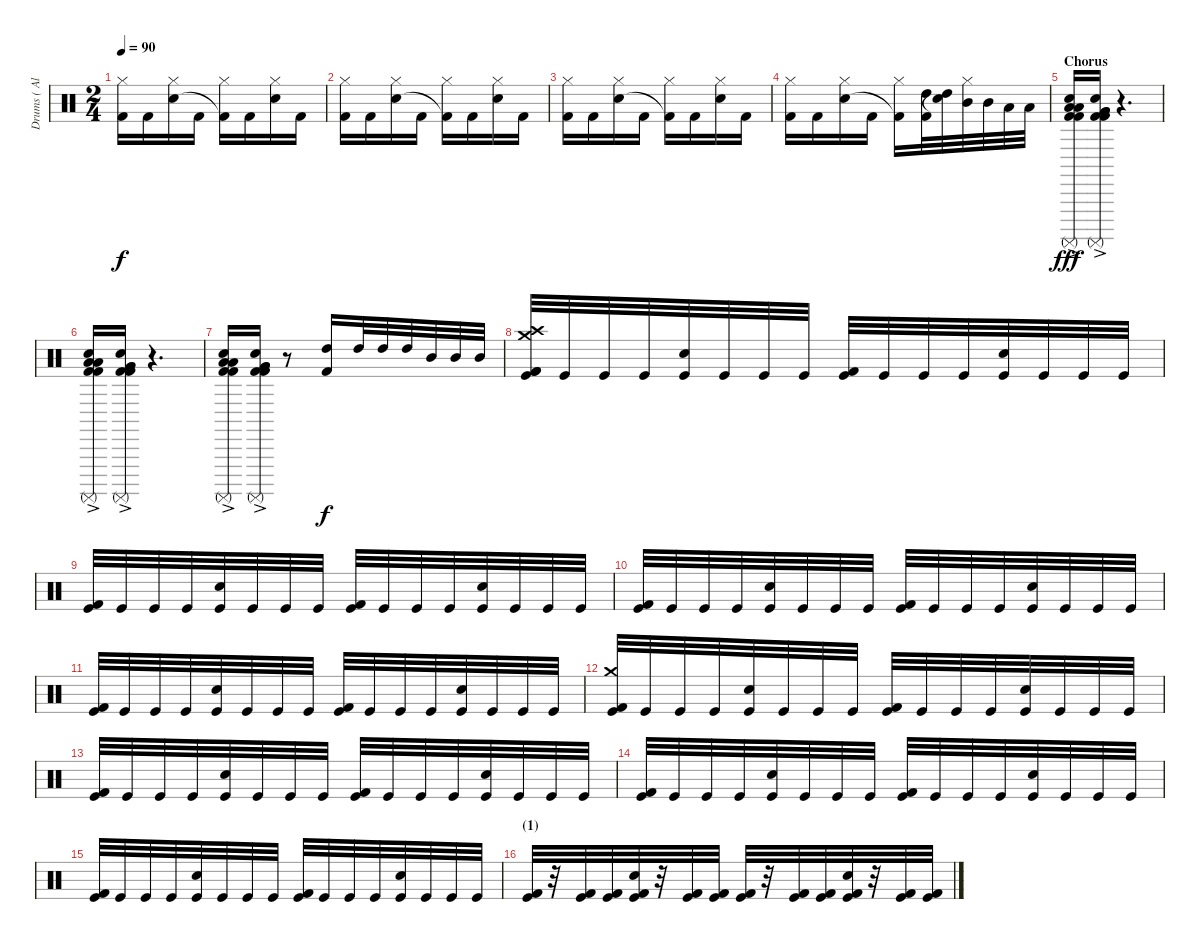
\track ("Drums ( Alex Holzwarth)" "Drums ( Al") {instrument percussion}
\staff {score}
\articulation defaults
\ts (2 4)
\tempo 90
\clef neutral
\ks c
("Hi-Hat (closed)" "Kick (hit) 2").16{dy f} "Kick (hit) 2".16 ("Hi-Hat (closed)" "Electric Snare (hit)").16 "Kick (hit) 2".16 ("Hi-Hat (closed)" "Kick (hit) 2"{t}).16 "Kick (hit) 2".16 ("Hi-Hat (closed)" "Electric Snare (hit)").16 "Kick (hit) 2".16 |
("Hi-Hat (closed)" "Kick (hit) 2").16 "Kick (hit) 2".16 ("Hi-Hat (closed)" "Electric Snare (hit)").16 "Kick (hit) 2".16 ("Hi-Hat (closed)" "Kick (hit) 2"{t}).16 "Kick (hit) 2".16 ("Hi-Hat (closed)" "Electric Snare (hit)").16 "Kick (hit) 2".16 |
("Hi-Hat (closed)" "Kick (hit) 2").16 "Kick (hit) 2".16 ("Hi-Hat (closed)" "Electric Snare (hit)").16 "Kick (hit) 2".16 ("Hi-Hat (closed)" "Kick (hit) 2"{t}).16 "Kick (hit) 2".16 ("Hi-Hat (closed)" "Electric Snare (hit)").16 "Kick (hit) 2".16 |
("Hi-Hat (closed)" "Kick (hit) 2").16 "Kick (hit) 2".16 ("Hi-Hat (closed)" "Electric Snare (hit)").16 "Kick (hit) 2".16 ("Hi-Hat (closed)" "Kick (hit) 2"{t}).16 ("High Tom (hit)" "Kick (hit) 2").32 ("High Tom (hit)" "Snare (hit)"{t}).32 ("Hi-Hat (closed)" "Mid Tom (hit)").32 "Mid Tom (hit)".32 "Low Tom (hit)".32 "Low Tom (hit)".32 |
\section ("" "Chorus")
("Surdo (mute)"{ac} "Low Tom (hit)"{ac} "Low Tom (hit)"{ac} "Snare (hit) 2" "Kick (hit) 2"{ac} "Kick (hit) 2"{ac}).16{dy fff} ("Surdo (mute)"{ac} "Very Low Tom (hit)"{ac} "Very Low Tom (hit)"{ac} "Snare (hit) 2" "Kick (hit) 2"{ac} "Kick (hit) 2"{ac}).16 r.4{d} |
("Surdo (mute)"{ac} "Low Tom (hit)"{ac} "Low Tom (hit)"{ac} "Snare (hit) 2" "Kick (hit) 2"{ac} "Kick (hit) 2"{ac}).16 ("Surdo (mute)"{ac} "Very Low Tom (hit)"{ac} "Very Low Tom (hit)"{ac} "Snare (hit) 2" "Kick (hit) 2"{ac} "Kick (hit) 2"{ac}).16 r.4{d} |
("Surdo (mute)"{ac} "Low Tom (hit)"{ac} "Low Tom (hit)"{ac} "Snare (hit) 2" "Kick (hit) 2"{ac} "Kick (hit) 2"{ac}).16 ("Surdo (mute)"{ac} "Very Low Tom (hit)"{ac} "Very Low Tom (hit)"{ac} "Snare (hit) 2" "Kick (hit) 2"{ac} "Kick (hit) 2"{ac}).16 r.8 ("High Tom (hit)" "Kick (hit) 2").16{dy f} "High Tom (hit)".32 "High Tom (hit)".32 "High Tom (hit)".32 "Mid Tom (hit)".32 "Mid Tom (hit)".32 "Mid Tom (hit)".32 |
("Crash high (hit)" "Crash medium (hit)" "Kick (hit) 2" "Kick (hit) 2" "Kick (hit)").32 "Kick (hit)".32 "Kick (hit)".32 "Kick (hit)".32 ("Snare (hit) 2" "Kick (hit)").32 "Kick (hit)".32 "Kick (hit)".32 "Kick (hit)".32 ("Kick (hit) 2" "Kick (hit)").32 "Kick (hit)".32 "Kick (hit)".32 "Kick (hit)".32 ("Snare (hit) 2" "Kick (hit)").32 "Kick (hit)".32 "Kick (hit)".32 "Kick (hit)".32 |
("Kick (hit) 2" "Kick (hit)").32 "Kick (hit)".32 "Kick (hit)".32 "Kick (hit)".32 ("Snare (hit) 2" "Kick (hit)").32 "Kick (hit)".32 "Kick (hit)".32 "Kick (hit)".32 ("Kick (hit) 2" "Kick (hit)").32 "Kick (hit)".32 "Kick (hit)".32 "Kick (hit)".32 ("Snare (hit) 2" "Kick (hit)").32 "Kick (hit)".32 "Kick (hit)".32 "Kick (hit)".32 |
("Kick (hit) 2" "Kick (hit)").32 "Kick (hit)".32 "Kick (hit)".32 "Kick (hit)".32 ("Snare (hit) 2" "Kick (hit)").32 "Kick (hit)".32 "Kick (hit)".32 "Kick (hit)".32 ("Kick (hit) 2" "Kick (hit)").32 "Kick (hit)".32 "Kick (hit)".32 "Kick (hit)".32 ("Snare (hit) 2" "Kick (hit)").32 "Kick (hit)".32 "Kick (hit)".32 "Kick (hit)".32 |
("Kick (hit) 2" "Kick (hit)").32 "Kick (hit)".32 "Kick (hit)".32 "Kick (hit)".32 ("Snare (hit) 2" "Kick (hit)").32 "Kick (hit)".32 "Kick (hit)".32 "Kick (hit)".32 ("Kick (hit) 2" "Kick (hit)").32 "Kick (hit)".32 "Kick (hit)".32 "Kick (hit)".32 ("Snare (hit) 2" "Kick (hit)").32 "Kick (hit)".32 "Kick (hit)".32 "Kick (hit)".32 |
("Crash medium (hit)" "Kick (hit) 2" "Kick (hit)").32 "Kick (hit)".32 "Kick (hit)".32 "Kick (hit)".32 ("Snare (hit) 2" "Kick (hit)").32 "Kick (hit)".32 "Kick (hit)".32 "Kick (hit)".32 ("Kick (hit) 2" "Kick (hit)").32 "Kick (hit)".32 "Kick (hit)".32 "Kick (hit)".32 ("Snare (hit) 2" "Kick (hit)").32 "Kick (hit)".32 "Kick (hit)".32 "Kick (hit)".32 |
("Kick (hit) 2" "Kick (hit)").32 "Kick (hit)".32 "Kick (hit)".32 "Kick (hit)".32 ("Snare (hit) 2" "Kick (hit)").32 "Kick (hit)".32 "Kick (hit)".32 "Kick (hit)".32 ("Kick (hit) 2" "Kick (hit)").32 "Kick (hit)".32 "Kick (hit)".32 "Kick (hit)".32 ("Snare (hit) 2" "Kick (hit)").32 "Kick (hit)".32 "Kick (hit)".32 "Kick (hit)".32 |
("Kick (hit) 2" "Kick (hit)").32 "Kick (hit)".32 "Kick (hit)".32 "Kick (hit)".32 ("Snare (hit) 2" "Kick (hit)").32 "Kick (hit)".32 "Kick (hit)".32 "Kick (hit)".32 ("Kick (hit) 2" "Kick (hit)").32 "Kick (hit)".32 "Kick (hit)".32 "Kick (hit)".32 ("Snare (hit) 2" "Kick (hit)").32 "Kick (hit)".32 "Kick (hit)".32 "Kick (hit)".32 |
("Kick (hit) 2" "Kick (hit)").32 "Kick (hit)".32 "Kick (hit)".32 "Kick (hit)".32 ("Snare (hit) 2" "Kick (hit)").32 "Kick (hit)".32 "Kick (hit)".32 "Kick (hit)".32 ("Kick (hit) 2" "Kick (hit)").32 "Kick (hit)".32 "Kick (hit)".32 "Kick (hit)".32 ("Snare (hit) 2" "Kick (hit)").32 "Kick (hit)".32 "Kick (hit)".32 "Kick (hit)".32 |
\section ("" "(1)")
("Kick (hit) 2" "Kick (hit)").32 r.32 ("Kick (hit) 2" "Kick (hit)").32 ("Kick (hit) 2" "Kick (hit)").32 ("Snare (hit) 2" "Kick (hit) 2" "Kick (hit)").32 r.32 ("Kick (hit) 2" "Kick (hit)").32 ("Kick (hit) 2" "Kick (hit)").32 ("Kick (hit) 2" "Kick (hit)").32 r.32 ("Kick (hit) 2" "Kick (hit)").32 ("Kick (hit) 2" "Kick (hit)").32 ("Snare (hit) 2" "Kick (hit) 2" "Kick (hit)").32 r.32 ("Kick (hit) 2" "Kick (hit)").32 ("Kick (hit) 2" "Kick (hit)").32
